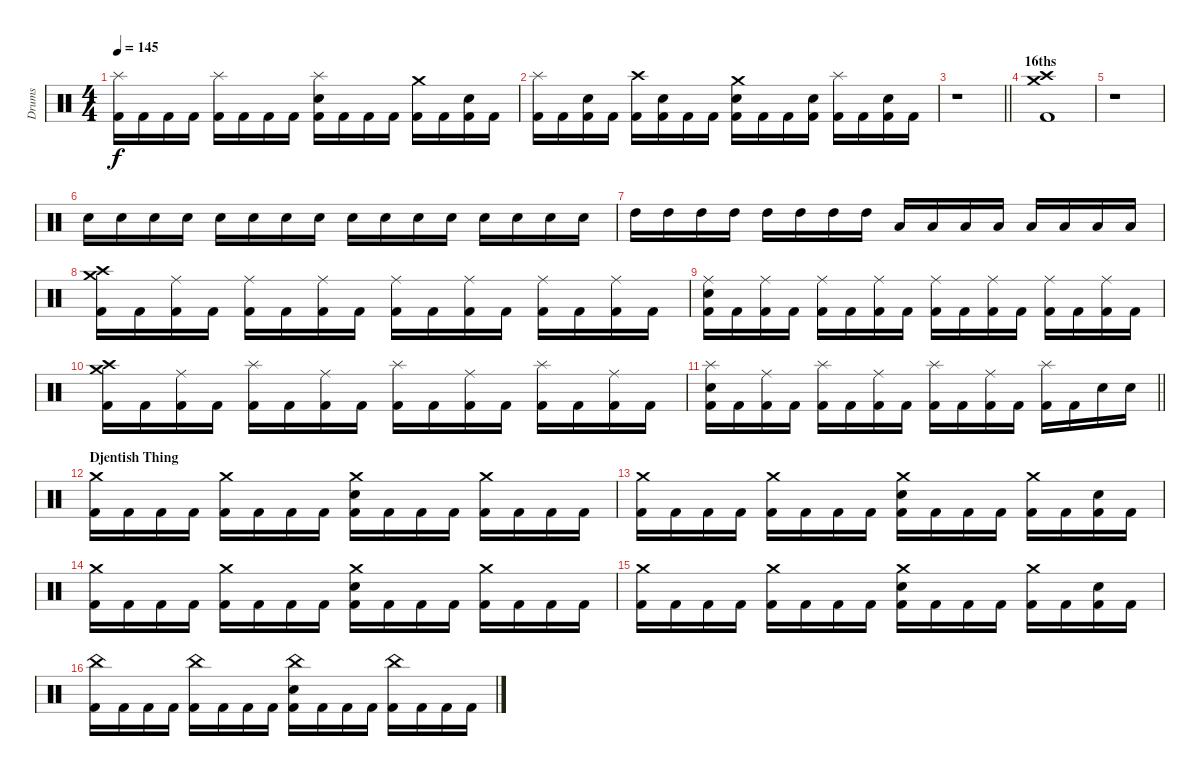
\track ("Drums" "Drums") {instrument percussion}
\staff {score}
\articulation defaults
\ts (4 4)
\tempo 145
\clef neutral
\ks c
("Splash (hit)" "Kick (hit) 2").16{dy f} "Kick (hit) 2".16 "Kick (hit) 2".16 "Kick (hit) 2".16 ("Splash (hit)" "Kick (hit) 2").16 "Kick (hit) 2".16 "Kick (hit) 2".16 "Kick (hit) 2".16 ("Splash (hit)" "Electric Snare (hit)" "Kick (hit) 2").16 "Kick (hit) 2".16 "Kick (hit) 2".16 "Kick (hit) 2".16 ("Crash medium (hit)" "Kick (hit) 2").16 "Kick (hit) 2".16 ("Electric Snare (hit)" "Kick (hit) 2").16 "Kick (hit) 2".16 |
("Splash (hit)" "Kick (hit) 2").16 "Kick (hit) 2".16 ("Electric Snare (hit)" "Kick (hit) 2").16 "Kick (hit) 2".16 ("Crash high (hit)" "Kick (hit) 2").16 ("Electric Snare (hit)" "Kick (hit) 2").16 "Kick (hit) 2".16 "Kick (hit) 2".16 ("Crash medium (hit)" "Electric Snare (hit)" "Kick (hit) 2").16 "Kick (hit) 2".16 "Kick (hit) 2".16 ("Electric Snare (hit)" "Kick (hit) 2").16 ("Splash (hit)" "Kick (hit) 2").16 "Kick (hit) 2".16 ("Electric Snare (hit)" "Kick (hit) 2").16 "Kick (hit) 2".16 |
\barLineRight lightlight
r.1 |
\section ("" "16ths")
("Crash high (hit)" "Crash medium (hit)" "Kick (hit) 2").1 |
r.1 |
"Electric Snare (hit)".16 "Electric Snare (hit)".16 "Electric Snare (hit)".16 "Electric Snare (hit)".16 "Electric Snare (hit)".16 "Electric Snare (hit)".16 "Electric Snare (hit)".16 "Electric Snare (hit)".16 "Electric Snare (hit)".16 "Electric Snare (hit)".16 "Electric Snare (hit)".16 "Electric Snare (hit)".16 "Electric Snare (hit)".16 "Electric Snare (hit)".16 "Electric Snare (hit)".16 "Electric Snare (hit)".16 |
"High Tom (hit)".16 "High Tom (hit)".16 "High Tom (hit)".16 "High Tom (hit)".16 "High Tom (hit)".16 "High Tom (hit)".16 "High Tom (hit)".16 "High Tom (hit)".16 "Low Tom (hit)".16 "Low Tom (hit)".16 "Low Tom (hit)".16 "Low Tom (hit)".16 "Low Tom (hit)".16 "Low Tom (hit)".16 "Low Tom (hit)".16 "Low Tom (hit)".16 |
("Crash high (hit)" "Crash medium (hit)" "Kick (hit) 2").16 "Kick (hit) 2".16 ("Ride (middle)" "Kick (hit) 2").16 "Kick (hit) 2".16 ("Ride (middle)" "Kick (hit) 2").16 "Kick (hit) 2".16 ("Ride (middle)" "Kick (hit) 2").16 "Kick (hit) 2".16 ("Ride (middle)" "Kick (hit) 2").16 "Kick (hit) 2".16 ("Ride (middle)" "Kick (hit) 2").16 "Kick (hit) 2".16 ("Ride (middle)" "Kick (hit) 2").16 "Kick (hit) 2".16 ("Ride (middle)" "Kick (hit) 2").16 "Kick (hit) 2".16 |
("Ride (middle)" "Electric Snare (hit)" "Kick (hit) 2").16 "Kick (hit) 2".16 ("Ride (middle)" "Kick (hit) 2").16 "Kick (hit) 2".16 ("Ride (middle)" "Kick (hit) 2").16 "Kick (hit) 2".16 ("Ride (middle)" "Kick (hit) 2").16 "Kick (hit) 2".16 ("Ride (middle)" "Kick (hit) 2").16 "Kick (hit) 2".16 ("Ride (middle)" "Kick (hit) 2").16 "Kick (hit) 2".16 ("Ride (middle)" "Kick (hit) 2").16 "Kick (hit) 2".16 ("Ride (middle)" "Kick (hit) 2").16 "Kick (hit) 2".16 |
("Crash high (hit)" "Crash medium (hit)" "Kick (hit) 2").16 "Kick (hit) 2".16 ("Ride (middle)" "Kick (hit) 2").16 "Kick (hit) 2".16 ("Splash (hit)" "Kick (hit) 2").16 "Kick (hit) 2".16 ("Ride (middle)" "Kick (hit) 2").16 "Kick (hit) 2".16 ("Splash (hit)" "Kick (hit) 2").16 "Kick (hit) 2".16 ("Ride (middle)" "Kick (hit) 2").16 "Kick (hit) 2".16 ("Splash (hit)" "Kick (hit) 2").16 "Kick (hit) 2".16 ("Ride (middle)" "Kick (hit) 2").16 "Kick (hit) 2".16 |
\barLineRight lightlight
("Splash (hit)" "Electric Snare (hit)" "Kick (hit) 2").16 "Kick (hit) 2".16 ("Ride (middle)" "Kick (hit) 2").16 "Kick (hit) 2".16 ("Splash (hit)" "Kick (hit) 2").16 "Kick (hit) 2".16 ("Ride (middle)" "Kick (hit) 2").16 "Kick (hit) 2".16 ("Splash (hit)" "Kick (hit) 2").16 "Kick (hit) 2".16 ("Ride (middle)" "Kick (hit) 2").16 "Kick (hit) 2".16 ("Splash (hit)" "Kick (hit) 2").16 "Kick (hit) 2".16 "Electric Snare (hit)".16 "Electric Snare (hit)".16 |
\section ("" "Djentish Thing")
("Crash medium (hit)" "Kick (hit) 2").16 "Kick (hit) 2".16 "Kick (hit) 2".16 "Kick (hit) 2".16 ("Crash medium (hit)" "Kick (hit) 2").16 "Kick (hit) 2".16 "Kick (hit) 2".16 "Kick (hit) 2".16 ("Crash medium (hit)" "Electric Snare (hit)" "Kick (hit) 2").16 "Kick (hit) 2".16 "Kick (hit) 2".16 "Kick (hit) 2".16 ("Crash medium (hit)" "Kick (hit) 2").16 "Kick (hit) 2".16 "Kick (hit) 2".16 "Kick (hit) 2".16 |
("Crash medium (hit)" "Kick (hit) 2").16 "Kick (hit) 2".16 "Kick (hit) 2".16 "Kick (hit) 2".16 ("Crash medium (hit)" "Kick (hit) 2").16 "Kick (hit) 2".16 "Kick (hit) 2".16 "Kick (hit) 2".16 ("Crash medium (hit)" "Electric Snare (hit)" "Kick (hit) 2").16 "Kick (hit) 2".16 "Kick (hit) 2".16 "Kick (hit) 2".16 ("Crash medium (hit)" "Kick (hit) 2").16 "Kick (hit) 2".16 ("Electric Snare (hit)" "Kick (hit) 2").16 "Kick (hit) 2".16 |
("Crash medium (hit)" "Kick (hit) 2").16 "Kick (hit) 2".16 "Kick (hit) 2".16 "Kick (hit) 2".16 ("Crash medium (hit)" "Kick (hit) 2").16 "Kick (hit) 2".16 "Kick (hit) 2".16 "Kick (hit) 2".16 ("Crash medium (hit)" "Electric Snare (hit)" "Kick (hit) 2").16 "Kick (hit) 2".16 "Kick (hit) 2".16 "Kick (hit) 2".16 ("Crash medium (hit)" "Kick (hit) 2").16 "Kick (hit) 2".16 "Kick (hit) 2".16 "Kick (hit) 2".16 |
("Crash medium (hit)" "Kick (hit) 2").16 "Kick (hit) 2".16 "Kick (hit) 2".16 "Kick (hit) 2".16 ("Crash medium (hit)" "Kick (hit) 2").16 "Kick (hit) 2".16 "Kick (hit) 2".16 "Kick (hit) 2".16 ("Crash medium (hit)" "Electric Snare (hit)" "Kick (hit) 2").16 "Kick (hit) 2".16 "Kick (hit) 2".16 "Kick (hit) 2".16 ("Crash medium (hit)" "Kick (hit) 2").16 "Kick (hit) 2".16 ("Electric Snare (hit)" "Kick (hit) 2").16 "Kick (hit) 2".16 |
("China (hit)" "Kick (hit) 2").16 "Kick (hit) 2".16 "Kick (hit) 2".16 "Kick (hit) 2".16 ("China (hit)" "Kick (hit) 2").16 "Kick (hit) 2".16 "Kick (hit) 2".16 "Kick (hit) 2".16 ("China (hit)" "Electric Snare (hit)" "Kick (hit) 2").16 "Kick (hit) 2".16 "Kick (hit) 2".16 "Kick (hit) 2".16 ("China (hit)" "Kick (hit) 2").16 "Kick (hit) 2".16 "Kick (hit) 2".16 "Kick (hit) 2".16
